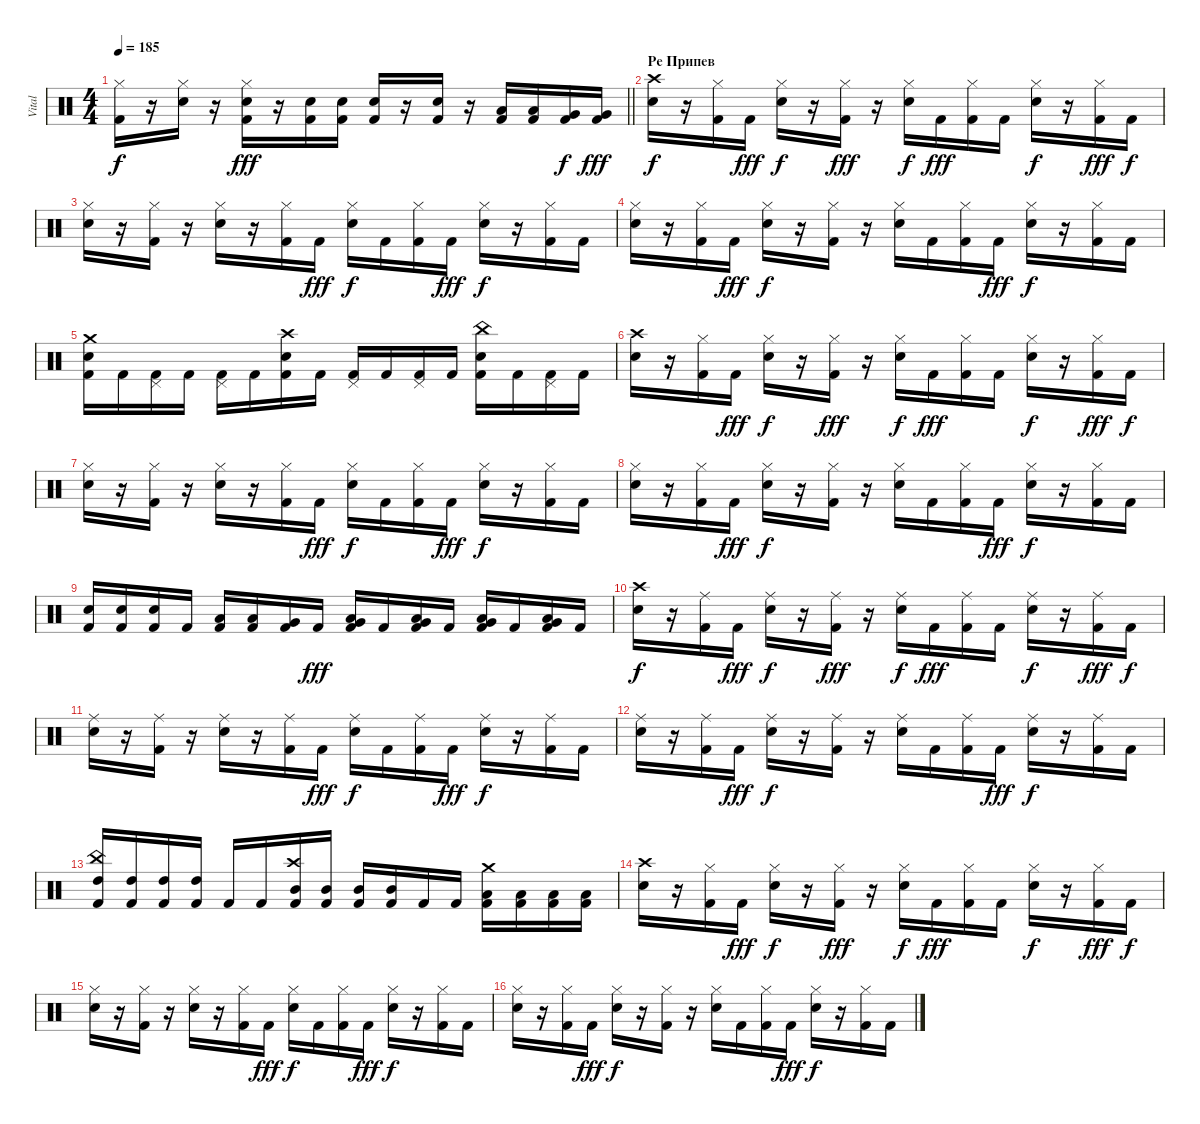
\track ("Vital" "Vital") {instrument percussion}
\staff {score}
\articulation defaults
\ts (4 4)
\tempo 185
\clef neutral
\barLineRight lightlight
\ks c
("Hi-Hat (closed)" "Kick (hit) 2").16{dy f} r.16 ("Hi-Hat (closed)" "Snare (hit) 2").16 r.16 ("Hi-Hat (closed)" "Snare (hit) 2" "Kick (hit) 2").16{dy fff} r.16 ("Snare (hit) 2" "Kick (hit) 2").16 ("Snare (hit) 2" "Kick (hit) 2").16 ("Snare (hit) 2" "Kick (hit) 2").16 r.16 ("Snare (hit) 2" "Kick (hit) 2").16 r.16 ("Low Tom (hit)" "Kick (hit) 2").16 ("Low Tom (hit)" "Kick (hit) 2").16 ("Very Low Tom (hit)" "Kick (hit) 2").16{dy f} ("Very Low Tom (hit)" "Kick (hit) 2").16{dy fff} |
\section ("" "Ре Припев")
("Crash high (hit)" "Snare (hit) 2").16{dy f} r.16 ("Hi-Hat (closed)" "Kick (hit) 2").16 "Kick (hit) 2".16{dy fff} ("Hi-Hat (closed)" "Snare (hit) 2").16{dy f} r.16 ("Hi-Hat (closed)" "Kick (hit) 2").16{dy fff} r.16 ("Hi-Hat (closed)" "Snare (hit) 2").16{dy f} "Kick (hit) 2".16{dy fff} ("Hi-Hat (closed)" "Kick (hit) 2").16 "Kick (hit) 2".16 ("Hi-Hat (closed)" "Snare (hit) 2").16{dy f} r.16 ("Hi-Hat (closed)" "Kick (hit) 2").16{dy fff} "Kick (hit) 2".16{dy f} |
("Hi-Hat (closed)" "Snare (hit) 2").16 r.16 ("Hi-Hat (closed)" "Kick (hit) 2").16 r.16 ("Hi-Hat (closed)" "Snare (hit) 2").16 r.16 ("Hi-Hat (closed)" "Kick (hit) 2").16 "Kick (hit) 2".16{dy fff} ("Hi-Hat (closed)" "Snare (hit) 2").16{dy f} "Kick (hit) 2".16 ("Hi-Hat (closed)" "Kick (hit) 2").16 "Kick (hit) 2".16{dy fff} ("Hi-Hat (closed)" "Snare (hit) 2").16{dy f} r.16 ("Hi-Hat (closed)" "Kick (hit) 2").16 "Kick (hit) 2".16 |
("Hi-Hat (closed)" "Snare (hit) 2").16 r.16 ("Hi-Hat (closed)" "Kick (hit) 2").16 "Kick (hit) 2".16{dy fff} ("Hi-Hat (closed)" "Snare (hit) 2").16{dy f} r.16 ("Hi-Hat (closed)" "Kick (hit) 2").16 r.16 ("Hi-Hat (closed)" "Snare (hit) 2").16 "Kick (hit) 2".16 ("Hi-Hat (closed)" "Kick (hit) 2").16 "Kick (hit) 2".16{dy fff} ("Hi-Hat (closed)" "Snare (hit) 2").16{dy f} r.16 ("Hi-Hat (closed)" "Kick (hit) 2").16 "Kick (hit) 2".16 |
("Crash medium (hit)" "Snare (hit) 2" "Kick (hit) 2").16 "Kick (hit) 2".16 ("Pedal Hi-Hat (hit)" "Kick (hit) 2").16 "Kick (hit) 2".16 ("Pedal Hi-Hat (hit)" "Kick (hit) 2").16 "Kick (hit) 2".16 ("Crash high (hit)" "Snare (hit) 2" "Kick (hit) 2").16 "Kick (hit) 2".16 ("Pedal Hi-Hat (hit)" "Kick (hit) 2").16 "Kick (hit) 2".16 ("Pedal Hi-Hat (hit)" "Kick (hit) 2").16 "Kick (hit) 2".16 ("China (hit)" "Snare (hit) 2" "Kick (hit) 2").16 "Kick (hit) 2".16 ("Pedal Hi-Hat (hit)" "Kick (hit) 2").16 "Kick (hit) 2".16 |
("Crash high (hit)" "Snare (hit) 2").16 r.16 ("Hi-Hat (closed)" "Kick (hit) 2").16 "Kick (hit) 2".16{dy fff} ("Hi-Hat (closed)" "Snare (hit) 2").16{dy f} r.16 ("Hi-Hat (closed)" "Kick (hit) 2").16{dy fff} r.16 ("Hi-Hat (closed)" "Snare (hit) 2").16{dy f} "Kick (hit) 2".16{dy fff} ("Hi-Hat (closed)" "Kick (hit) 2").16 "Kick (hit) 2".16 ("Hi-Hat (closed)" "Snare (hit) 2").16{dy f} r.16 ("Hi-Hat (closed)" "Kick (hit) 2").16{dy fff} "Kick (hit) 2".16{dy f} |
("Hi-Hat (closed)" "Snare (hit) 2").16 r.16 ("Hi-Hat (closed)" "Kick (hit) 2").16 r.16 ("Hi-Hat (closed)" "Snare (hit) 2").16 r.16 ("Hi-Hat (closed)" "Kick (hit) 2").16 "Kick (hit) 2".16{dy fff} ("Hi-Hat (closed)" "Snare (hit) 2").16{dy f} "Kick (hit) 2".16 ("Hi-Hat (closed)" "Kick (hit) 2").16 "Kick (hit) 2".16{dy fff} ("Hi-Hat (closed)" "Snare (hit) 2").16{dy f} r.16 ("Hi-Hat (closed)" "Kick (hit) 2").16 "Kick (hit) 2".16 |
("Hi-Hat (closed)" "Snare (hit) 2").16 r.16 ("Hi-Hat (closed)" "Kick (hit) 2").16 "Kick (hit) 2".16{dy fff} ("Hi-Hat (closed)" "Snare (hit) 2").16{dy f} r.16 ("Hi-Hat (closed)" "Kick (hit) 2").16 r.16 ("Hi-Hat (closed)" "Snare (hit) 2").16 "Kick (hit) 2".16 ("Hi-Hat (closed)" "Kick (hit) 2").16 "Kick (hit) 2".16{dy fff} ("Hi-Hat (closed)" "Snare (hit) 2").16{dy f} r.16 ("Hi-Hat (closed)" "Kick (hit) 2").16 "Kick (hit) 2".16 |
("Snare (hit) 2" "Kick (hit) 2").16 ("Snare (hit) 2" "Kick (hit) 2").16 ("Snare (hit) 2" "Kick (hit) 2").16 "Kick (hit) 2".16 ("Low Tom (hit)" "Kick (hit) 2").16 ("Low Tom (hit)" "Kick (hit) 2").16 ("Very Low Tom (hit)" "Kick (hit) 2").16 "Kick (hit) 2".16{dy fff} ("Low Tom (hit)" "Very Low Tom (hit)" "Kick (hit) 2").16 "Kick (hit) 2".16 ("Low Tom (hit)" "Very Low Tom (hit)" "Kick (hit) 2").16 "Kick (hit) 2".16 ("Very Low Tom (hit)" "Low Floor Tom (hit)" "Kick (hit) 2").16 "Kick (hit) 2".16 ("Low Tom (hit)" "Very Low Tom (hit)" "Kick (hit) 2").16 "Kick (hit) 2".16 |
("Crash high (hit)" "Snare (hit) 2").16{dy f} r.16 ("Ride (middle)" "Kick (hit) 2").16 "Kick (hit) 2".16{dy fff} ("Ride (middle)" "Snare (hit) 2").16{dy f} r.16 ("Ride (middle)" "Kick (hit) 2").16{dy fff} r.16 ("Ride (middle)" "Snare (hit) 2").16{dy f} "Kick (hit) 2".16{dy fff} ("Ride (middle)" "Kick (hit) 2").16 "Kick (hit) 2".16 ("Ride (middle)" "Snare (hit) 2").16{dy f} r.16 ("Ride (middle)" "Kick (hit) 2").16{dy fff} "Kick (hit) 2".16{dy f} |
("Ride (middle)" "Snare (hit) 2").16 r.16 ("Ride (middle)" "Kick (hit) 2").16 r.16 ("Ride (middle)" "Snare (hit) 2").16 r.16 ("Ride (middle)" "Kick (hit) 2").16 "Kick (hit) 2".16{dy fff} ("Ride (middle)" "Snare (hit) 2").16{dy f} "Kick (hit) 2".16 ("Ride (middle)" "Kick (hit) 2").16 "Kick (hit) 2".16{dy fff} ("Ride (middle)" "Snare (hit) 2").16{dy f} r.16 ("Ride (middle)" "Kick (hit) 2").16 "Kick (hit) 2".16 |
("Ride (middle)" "Snare (hit) 2").16 r.16 ("Ride (middle)" "Kick (hit) 2").16 "Kick (hit) 2".16{dy fff} ("Ride (middle)" "Snare (hit) 2").16{dy f} r.16 ("Ride (middle)" "Kick (hit) 2").16 r.16 ("Ride (middle)" "Snare (hit) 2").16 "Kick (hit) 2".16 ("Ride (middle)" "Kick (hit) 2").16 "Kick (hit) 2".16{dy fff} ("Ride (middle)" "Snare (hit) 2").16{dy f} r.16 ("Ride (middle)" "Kick (hit) 2").16 "Kick (hit) 2".16 |
("China (hit)" "High Tom (hit)" "Kick (hit) 2").16 ("High Tom (hit)" "Kick (hit) 2").16 ("High Tom (hit)" "Kick (hit) 2").16 ("High Tom (hit)" "Kick (hit) 2").16 "Kick (hit) 2".16 "Kick (hit) 2".16 ("Crash high (hit)" "Mid Tom (hit)" "Kick (hit) 2").16 ("Mid Tom (hit)" "Kick (hit) 2").16 ("Mid Tom (hit)" "Kick (hit) 2").16 ("Mid Tom (hit)" "Kick (hit) 2").16 "Kick (hit) 2".16 "Kick (hit) 2".16 ("Crash medium (hit)" "Low Tom (hit)" "Kick (hit) 2").16 ("Low Tom (hit)" "Kick (hit) 2").16 ("Low Tom (hit)" "Kick (hit) 2").16 ("Low Tom (hit)" "Kick (hit) 2").16 |
("Crash high (hit)" "Snare (hit) 2").16 r.16 ("Hi-Hat (closed)" "Kick (hit) 2").16 "Kick (hit) 2".16{dy fff} ("Hi-Hat (closed)" "Snare (hit) 2").16{dy f} r.16 ("Hi-Hat (closed)" "Kick (hit) 2").16{dy fff} r.16 ("Hi-Hat (closed)" "Snare (hit) 2").16{dy f} "Kick (hit) 2".16{dy fff} ("Hi-Hat (closed)" "Kick (hit) 2").16 "Kick (hit) 2".16 ("Hi-Hat (closed)" "Snare (hit) 2").16{dy f} r.16 ("Hi-Hat (closed)" "Kick (hit) 2").16{dy fff} "Kick (hit) 2".16{dy f} |
("Hi-Hat (closed)" "Snare (hit) 2").16 r.16 ("Hi-Hat (closed)" "Kick (hit) 2").16 r.16 ("Hi-Hat (closed)" "Snare (hit) 2").16 r.16 ("Hi-Hat (closed)" "Kick (hit) 2").16 "Kick (hit) 2".16{dy fff} ("Hi-Hat (closed)" "Snare (hit) 2").16{dy f} "Kick (hit) 2".16 ("Hi-Hat (closed)" "Kick (hit) 2").16 "Kick (hit) 2".16{dy fff} ("Hi-Hat (closed)" "Snare (hit) 2").16{dy f} r.16 ("Hi-Hat (closed)" "Kick (hit) 2").16 "Kick (hit) 2".16 |
("Hi-Hat (closed)" "Snare (hit) 2").16 r.16 ("Hi-Hat (closed)" "Kick (hit) 2").16 "Kick (hit) 2".16{dy fff} ("Hi-Hat (closed)" "Snare (hit) 2").16{dy f} r.16 ("Hi-Hat (closed)" "Kick (hit) 2").16 r.16 ("Hi-Hat (closed)" "Snare (hit) 2").16 "Kick (hit) 2".16 ("Hi-Hat (closed)" "Kick (hit) 2").16 "Kick (hit) 2".16{dy fff} ("Hi-Hat (closed)" "Snare (hit) 2").16{dy f} r.16 ("Hi-Hat (closed)" "Kick (hit) 2").16 "Kick (hit) 2".16
